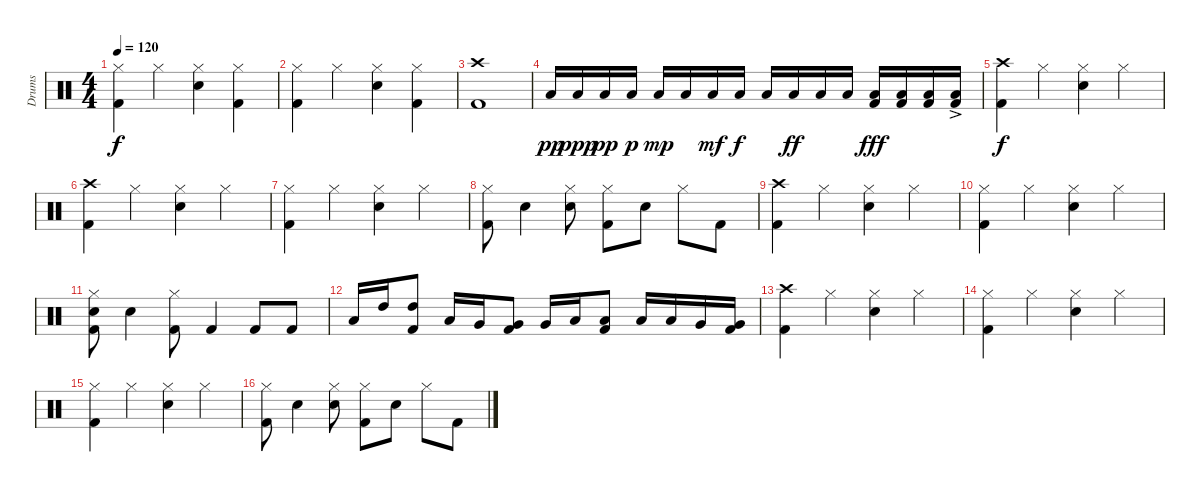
\track ("Drums" "Drums") {instrument percussion}
\staff {score}
\articulation defaults
\ts (4 4)
\tempo 120
\clef neutral
\ks c
("Hi-Hat (closed)" "Kick (hit) 2").4{dy f} "Hi-Hat (closed)".4 ("Hi-Hat (closed)" "Electric Snare (hit)").4 ("Hi-Hat (closed)" "Kick (hit) 2").4 |
("Hi-Hat (closed)" "Kick (hit) 2").4 "Hi-Hat (closed)".4 ("Hi-Hat (closed)" "Electric Snare (hit)").4 ("Hi-Hat (closed)" "Kick (hit) 2").4 |
("Crash high (hit)" "Kick (hit) 2").1 |
"Low Floor Tom (hit)".16{dy pp} "Low Floor Tom (hit)".16{dy ppp} "Low Floor Tom (hit)".16{dy pp} "Low Floor Tom (hit)".16{dy p} "Low Floor Tom (hit)".16{dy mp} "Low Floor Tom (hit)".16 "Low Floor Tom (hit)".16{dy mf} "Low Floor Tom (hit)".16{dy f} "Low Floor Tom (hit)".16 "Low Floor Tom (hit)".16{dy ff} "Low Floor Tom (hit)".16 "Low Floor Tom (hit)".16 ("Low Floor Tom (hit)" "Kick (hit) 2").16{dy fff} ("Low Floor Tom (hit)" "Kick (hit) 2").16 ("Low Floor Tom (hit)" "Kick (hit) 2").16 ("Low Floor Tom (hit)"{ac} "Kick (hit) 2").16 |
("Crash high (hit)" "Kick (hit) 2").4{dy f} "Hi-Hat (closed)".4 ("Hi-Hat (closed)" "Electric Snare (hit)").4 "Hi-Hat (closed)".4 |
("Crash high (hit)" "Kick (hit) 2").4 "Hi-Hat (closed)".4 ("Hi-Hat (closed)" "Electric Snare (hit)").4 "Hi-Hat (closed)".4 |
("Hi-Hat (closed)" "Kick (hit) 2").4 "Hi-Hat (closed)".4 ("Hi-Hat (closed)" "Electric Snare (hit)").4 "Hi-Hat (closed)".4 |
("Hi-Hat (closed)" "Kick (hit) 2").8 "Electric Snare (hit)".4 ("Hi-Hat (closed)" "Electric Snare (hit)").8 ("Hi-Hat (closed)" "Kick (hit) 2").8 "Electric Snare (hit)".8 "Hi-Hat (closed)".8 "Kick (hit) 2".8 |
("Crash high (hit)" "Kick (hit) 2").4 "Hi-Hat (closed)".4 ("Hi-Hat (closed)" "Electric Snare (hit)").4 "Hi-Hat (closed)".4 |
("Hi-Hat (closed)" "Kick (hit) 2").4 "Hi-Hat (closed)".4 ("Hi-Hat (closed)" "Electric Snare (hit)").4 "Hi-Hat (closed)".4 |
("Hi-Hat (closed)" "Electric Snare (hit)" "Kick (hit) 2").8 "Electric Snare (hit)".4 ("Hi-Hat (closed)" "Kick (hit) 2").8 "Kick (hit) 2".4 "Kick (hit) 2".8 "Kick (hit) 2".8 |
"Low Tom (hit)".16 "High Tom (hit)".16 ("High Tom (hit)" "Kick (hit) 2").8 "Low Tom (hit)".16 "Very Low Tom (hit)".16 ("Very Low Tom (hit)" "Kick (hit) 2").8 "Very Low Tom (hit)".16 "Low Tom (hit)".16 ("Low Tom (hit)" "Kick (hit) 2").8 "Low Floor Tom (hit)".16 "Low Floor Tom (hit)".16 "Very Low Tom (hit)".16 ("Very Low Tom (hit)" "Kick (hit) 2").16 |
("Crash high (hit)" "Kick (hit) 2").4 "Hi-Hat (closed)".4 ("Hi-Hat (closed)" "Electric Snare (hit)").4 "Hi-Hat (closed)".4 |
("Hi-Hat (closed)" "Kick (hit) 2").4 "Hi-Hat (closed)".4 ("Hi-Hat (closed)" "Electric Snare (hit)").4 "Hi-Hat (closed)".4 |
("Hi-Hat (closed)" "Kick (hit) 2").4 "Hi-Hat (closed)".4 ("Hi-Hat (closed)" "Electric Snare (hit)").4 "Hi-Hat (closed)".4 |
("Hi-Hat (closed)" "Kick (hit) 2").8 "Electric Snare (hit)".4 ("Hi-Hat (closed)" "Electric Snare (hit)").8 ("Hi-Hat (closed)" "Kick (hit) 2").8 "Electric Snare (hit)".8 "Hi-Hat (closed)".8 "Kick (hit) 2".8
